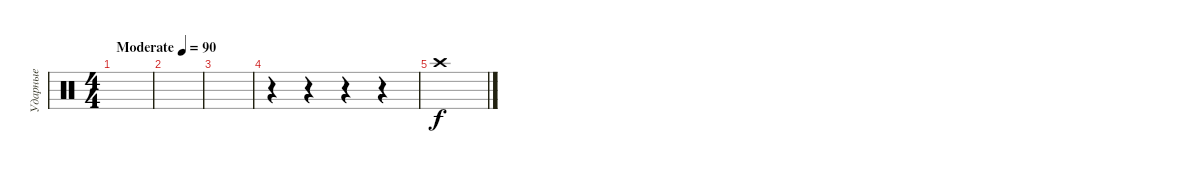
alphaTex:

\track ("Ударные" "Ударные") {instrument percussion}
\staff {score}
\articulation defaults
\ts (4 4)
\tempo (90 "Moderate")
\clef neutral
\ks c
|
|
|
r.4 r.4 r.4 r.4 |
"Crash high (hit)".1
